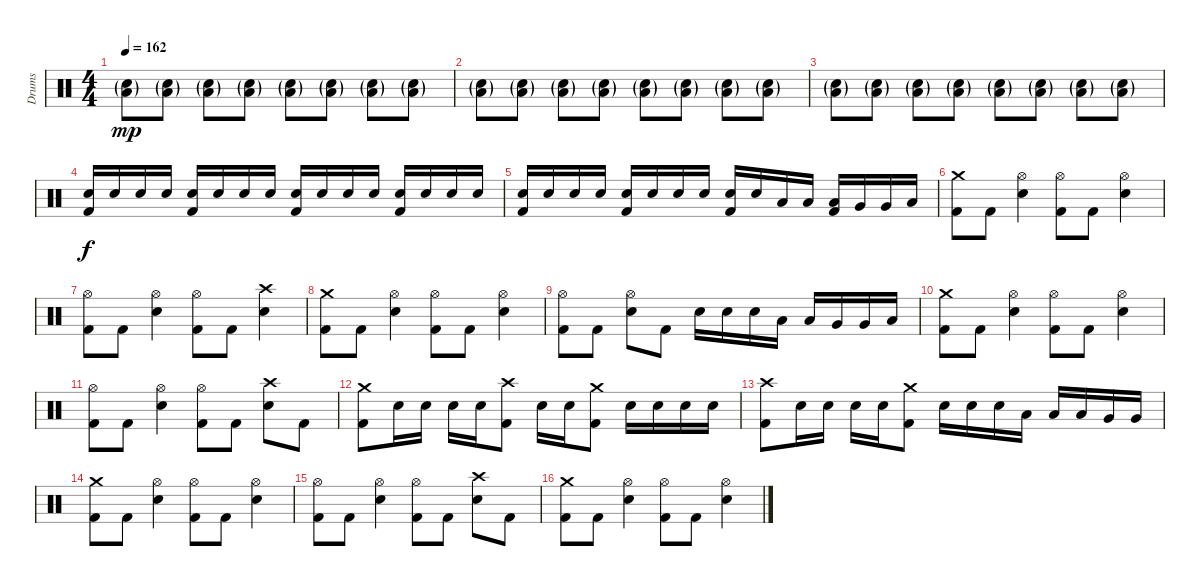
\track ("Drums" "Drums") {instrument percussion}
\staff {score}
\articulation defaults
\ts (4 4)
\tempo 162
\clef neutral
\ks c
("Low Floor Tom (hit)"{g} "Electric Snare (hit)"{g}).8{dy mp} ("Low Floor Tom (hit)"{g} "Electric Snare (hit)"{g}).8 ("Low Floor Tom (hit)"{g} "Electric Snare (hit)"{g}).8 ("Low Floor Tom (hit)"{g} "Electric Snare (hit)"{g}).8 ("Low Floor Tom (hit)"{g} "Electric Snare (hit)"{g}).8 ("Low Floor Tom (hit)"{g} "Electric Snare (hit)"{g}).8 ("Low Floor Tom (hit)"{g} "Electric Snare (hit)"{g}).8 ("Low Floor Tom (hit)"{g} "Electric Snare (hit)"{g}).8 |
("Low Floor Tom (hit)"{g} "Electric Snare (hit)"{g}).8{volume 16} ("Low Floor Tom (hit)"{g} "Electric Snare (hit)"{g}).8 ("Low Floor Tom (hit)"{g} "Electric Snare (hit)"{g}).8 ("Low Floor Tom (hit)"{g} "Electric Snare (hit)"{g}).8 ("Low Floor Tom (hit)"{g} "Electric Snare (hit)"{g}).8 ("Low Floor Tom (hit)"{g} "Electric Snare (hit)"{g}).8 ("Low Floor Tom (hit)"{g} "Electric Snare (hit)"{g}).8 ("Low Floor Tom (hit)"{g} "Electric Snare (hit)"{g}).8 |
("Low Floor Tom (hit)"{g} "Electric Snare (hit)"{g}).8 ("Low Floor Tom (hit)"{g} "Electric Snare (hit)"{g}).8 ("Low Floor Tom (hit)"{g} "Electric Snare (hit)"{g}).8 ("Low Floor Tom (hit)"{g} "Electric Snare (hit)"{g}).8 ("Low Floor Tom (hit)"{g} "Electric Snare (hit)"{g}).8 ("Low Floor Tom (hit)"{g} "Electric Snare (hit)"{g}).8 ("Low Floor Tom (hit)"{g} "Electric Snare (hit)"{g}).8 ("Low Floor Tom (hit)"{g} "Electric Snare (hit)"{g}).8 |
("Electric Snare (hit)" "Kick (hit) 2").16{dy f volume 12} "Electric Snare (hit)".16 "Electric Snare (hit)".16 "Electric Snare (hit)".16 ("Electric Snare (hit)" "Kick (hit) 2").16 "Electric Snare (hit)".16 "Electric Snare (hit)".16 "Electric Snare (hit)".16 ("Electric Snare (hit)" "Kick (hit) 2").16 "Electric Snare (hit)".16 "Electric Snare (hit)".16 "Electric Snare (hit)".16 ("Electric Snare (hit)" "Kick (hit) 2").16 "Electric Snare (hit)".16 "Electric Snare (hit)".16 "Electric Snare (hit)".16 |
("Electric Snare (hit)" "Kick (hit) 2").16 "Electric Snare (hit)".16 "Electric Snare (hit)".16 "Electric Snare (hit)".16 ("Electric Snare (hit)" "Kick (hit) 2").16 "Electric Snare (hit)".16 "Electric Snare (hit)".16 "Electric Snare (hit)".16 ("Electric Snare (hit)" "Kick (hit) 2").16 "Electric Snare (hit)".16 "Low Tom (hit)".16 "Low Tom (hit)".16 ("Low Tom (hit)" "Kick (hit) 2").16 "Very Low Tom (hit)".16 "Very Low Tom (hit)".16 "Low Floor Tom (hit)".16 |
("Crash medium (hit)" "Kick (hit) 2").8 "Kick (hit) 2".8 ("Hi-Hat (open)" "Electric Snare (hit)").4 ("Hi-Hat (open)" "Kick (hit) 2").8 "Kick (hit) 2".8 ("Hi-Hat (open)" "Electric Snare (hit)").4 |
("Hi-Hat (open)" "Kick (hit) 2").8 "Kick (hit) 2".8 ("Hi-Hat (open)" "Electric Snare (hit)").4 ("Hi-Hat (open)" "Kick (hit) 2").8 "Kick (hit) 2".8 ("Crash high (hit)" "Electric Snare (hit)").4 |
("Crash medium (hit)" "Kick (hit) 2").8 "Kick (hit) 2".8 ("Hi-Hat (open)" "Electric Snare (hit)").4 ("Hi-Hat (open)" "Kick (hit) 2").8 "Kick (hit) 2".8 ("Hi-Hat (open)" "Electric Snare (hit)").4 |
("Hi-Hat (open)" "Kick (hit) 2").8 "Kick (hit) 2".8 ("Hi-Hat (open)" "Electric Snare (hit)").8 "Kick (hit) 2".8 "Electric Snare (hit)".16 "Electric Snare (hit)".16 "Electric Snare (hit)".16 "Low Tom (hit)".16 "Low Tom (hit)".16 "Very Low Tom (hit)".16 "Very Low Tom (hit)".16 "Low Floor Tom (hit)".16 |
("Crash medium (hit)" "Kick (hit) 2").8 "Kick (hit) 2".8 ("Hi-Hat (open)" "Electric Snare (hit)").4 ("Hi-Hat (open)" "Kick (hit) 2").8 "Kick (hit) 2".8 ("Hi-Hat (open)" "Electric Snare (hit)").4 |
("Hi-Hat (open)" "Kick (hit) 2").8 "Kick (hit) 2".8 ("Hi-Hat (open)" "Electric Snare (hit)").4 ("Hi-Hat (open)" "Kick (hit) 2").8 "Kick (hit) 2".8 ("Crash high (hit)" "Electric Snare (hit)").8 "Kick (hit) 2".8 |
("Crash medium (hit)" "Kick (hit) 2").8 "Electric Snare (hit)".16 "Electric Snare (hit)".16 "Electric Snare (hit)".16 "Electric Snare (hit)".16 ("Crash high (hit)" "Kick (hit) 2").8 "Electric Snare (hit)".16 "Electric Snare (hit)".16 ("Crash medium (hit)" "Kick (hit) 2").8 "Electric Snare (hit)".16 "Electric Snare (hit)".16 "Electric Snare (hit)".16 "Electric Snare (hit)".16 |
("Crash high (hit)" "Kick (hit) 2").8 "Electric Snare (hit)".16 "Electric Snare (hit)".16 "Electric Snare (hit)".16 "Electric Snare (hit)".16 ("Crash medium (hit)" "Kick (hit) 2").8 "Electric Snare (hit)".16 "Electric Snare (hit)".16 "Electric Snare (hit)".16 "Low Tom (hit)".16 "Low Tom (hit)".16 "Low Tom (hit)".16 "Very Low Tom (hit)".16 "Very Low Tom (hit)".16 |
("Crash medium (hit)" "Kick (hit) 2").8 "Kick (hit) 2".8 ("Hi-Hat (open)" "Electric Snare (hit)").4 ("Hi-Hat (open)" "Kick (hit) 2").8 "Kick (hit) 2".8 ("Hi-Hat (open)" "Electric Snare (hit)").4 |
("Hi-Hat (open)" "Kick (hit) 2").8 "Kick (hit) 2".8 ("Hi-Hat (open)" "Electric Snare (hit)").4 ("Hi-Hat (open)" "Kick (hit) 2").8 "Kick (hit) 2".8 ("Crash high (hit)" "Electric Snare (hit)").8 "Kick (hit) 2".8 |
("Crash medium (hit)" "Kick (hit) 2").8 "Kick (hit) 2".8 ("Hi-Hat (open)" "Electric Snare (hit)").4 ("Hi-Hat (open)" "Kick (hit) 2").8 "Kick (hit) 2".8 ("Hi-Hat (open)" "Electric Snare (hit)").4
